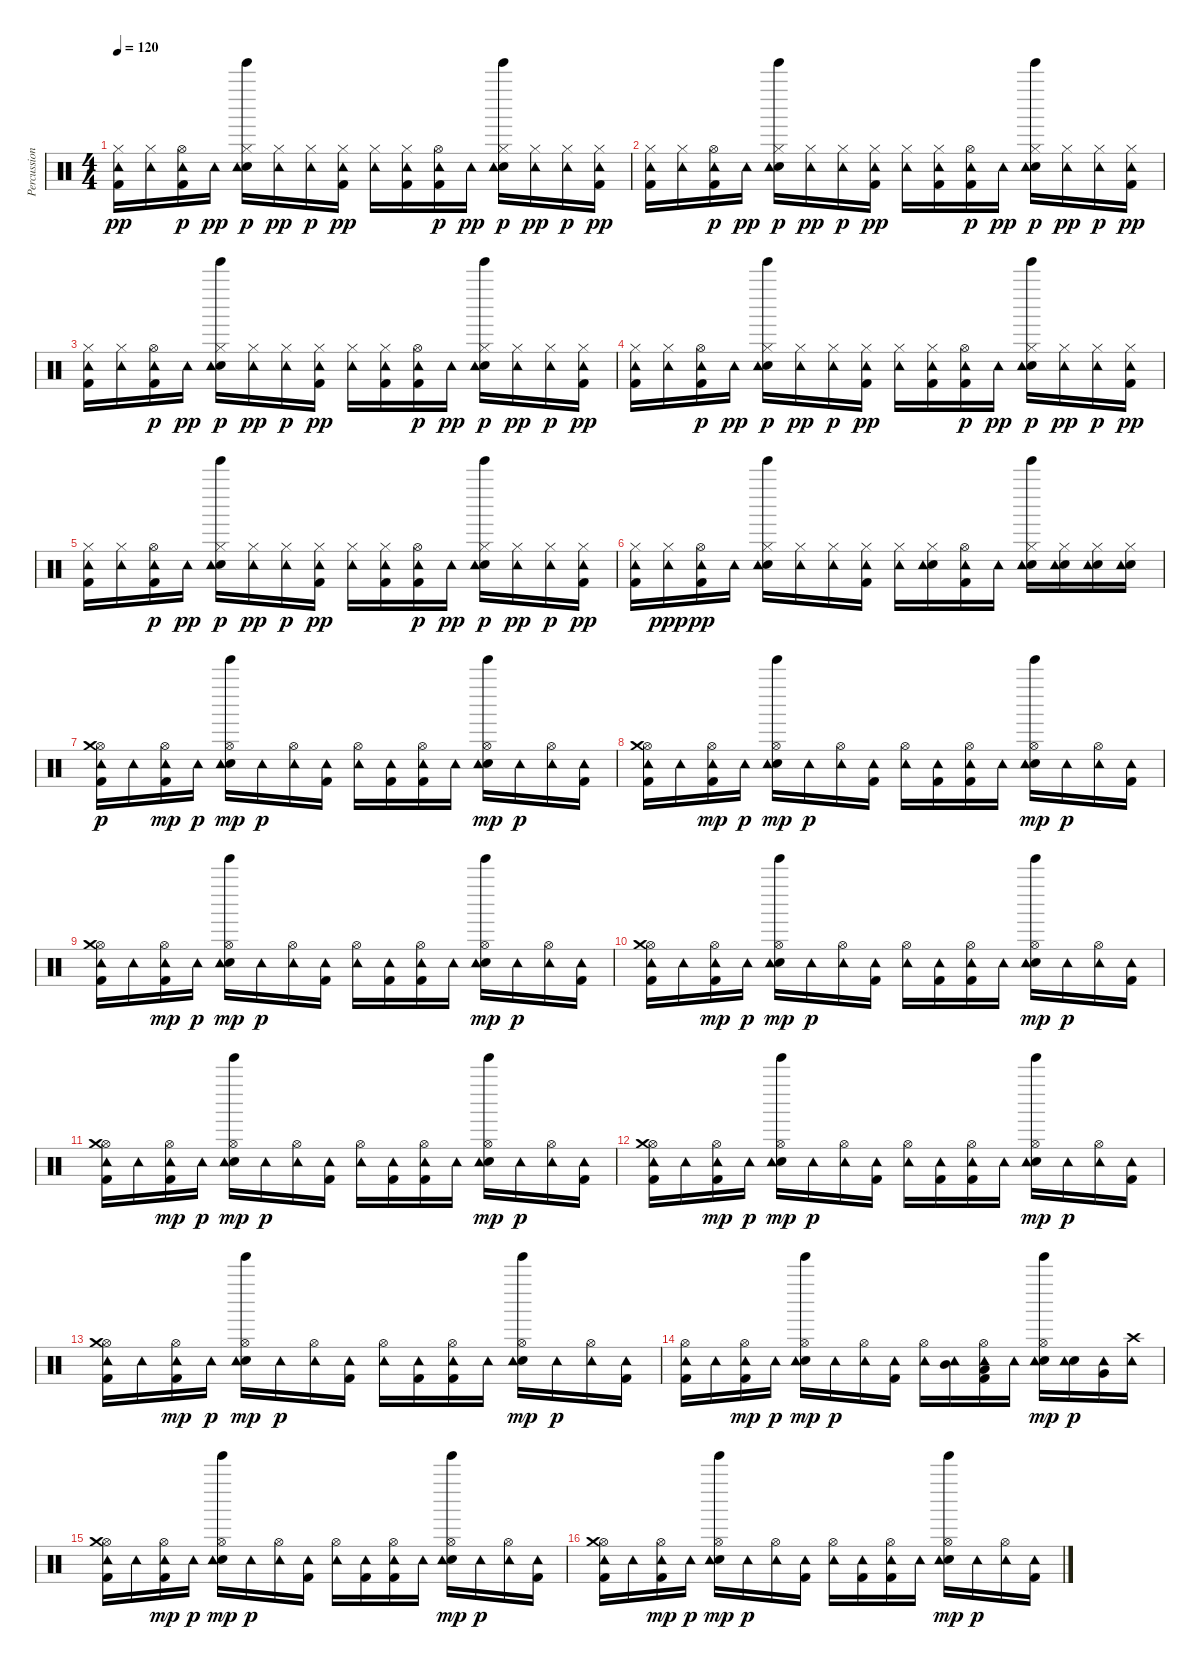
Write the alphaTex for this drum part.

\track ("Percussioni" "Percussion") {instrument percussion}
\staff {score}
\articulation defaults
\ts (4 4)
\tempo 120
\clef neutral
\ks c
("Kick (hit) 2" "Hi-Hat (closed)" "Tambourine (hit)").16{dy pp} ("Hi-Hat (closed)" "Tambourine (hit)").16 ("Kick (hit) 2" "Hi-Hat (open)" "Tambourine (hit)").16{dy p} "Tambourine (hit)".16{dy pp} ("Electric Snare (hit)" "Hi-Hat (closed)" "Tambourine (hit)" "Tinkle Bell (hit)").16{dy p} ("Hi-Hat (closed)" "Tambourine (hit)").16{dy pp} ("Hi-Hat (closed)" "Tambourine (hit)").16{dy p} ("Kick (hit) 2" "Hi-Hat (closed)" "Tambourine (hit)").16{dy pp} ("Hi-Hat (closed)" "Tambourine (hit)").16 ("Kick (hit) 2" "Hi-Hat (closed)" "Tambourine (hit)").16 ("Kick (hit) 2" "Hi-Hat (open)" "Tambourine (hit)").16{dy p} "Tambourine (hit)".16{dy pp} ("Electric Snare (hit)" "Hi-Hat (closed)" "Tambourine (hit)" "Tinkle Bell (hit)").16{dy p} ("Hi-Hat (closed)" "Tambourine (hit)").16{dy pp} ("Hi-Hat (closed)" "Tambourine (hit)").16{dy p} ("Kick (hit) 2" "Hi-Hat (closed)" "Tambourine (hit)").16{dy pp} |
("Kick (hit) 2" "Hi-Hat (closed)" "Tambourine (hit)").16 ("Hi-Hat (closed)" "Tambourine (hit)").16 ("Kick (hit) 2" "Hi-Hat (open)" "Tambourine (hit)").16{dy p} "Tambourine (hit)".16{dy pp} ("Electric Snare (hit)" "Hi-Hat (closed)" "Tambourine (hit)" "Tinkle Bell (hit)").16{dy p} ("Hi-Hat (closed)" "Tambourine (hit)").16{dy pp} ("Hi-Hat (closed)" "Tambourine (hit)").16{dy p} ("Kick (hit) 2" "Hi-Hat (closed)" "Tambourine (hit)").16{dy pp} ("Hi-Hat (closed)" "Tambourine (hit)").16 ("Kick (hit) 2" "Hi-Hat (closed)" "Tambourine (hit)").16 ("Kick (hit) 2" "Hi-Hat (open)" "Tambourine (hit)").16{dy p} "Tambourine (hit)".16{dy pp} ("Electric Snare (hit)" "Hi-Hat (closed)" "Tambourine (hit)" "Tinkle Bell (hit)").16{dy p} ("Hi-Hat (closed)" "Tambourine (hit)").16{dy pp} ("Hi-Hat (closed)" "Tambourine (hit)").16{dy p} ("Kick (hit) 2" "Hi-Hat (closed)" "Tambourine (hit)").16{dy pp} |
("Kick (hit) 2" "Hi-Hat (closed)" "Tambourine (hit)").16 ("Hi-Hat (closed)" "Tambourine (hit)").16 ("Kick (hit) 2" "Hi-Hat (open)" "Tambourine (hit)").16{dy p} "Tambourine (hit)".16{dy pp} ("Electric Snare (hit)" "Hi-Hat (closed)" "Tambourine (hit)" "Tinkle Bell (hit)").16{dy p} ("Hi-Hat (closed)" "Tambourine (hit)").16{dy pp} ("Hi-Hat (closed)" "Tambourine (hit)").16{dy p} ("Kick (hit) 2" "Hi-Hat (closed)" "Tambourine (hit)").16{dy pp} ("Hi-Hat (closed)" "Tambourine (hit)").16 ("Kick (hit) 2" "Hi-Hat (closed)" "Tambourine (hit)").16 ("Kick (hit) 2" "Hi-Hat (open)" "Tambourine (hit)").16{dy p} "Tambourine (hit)".16{dy pp} ("Electric Snare (hit)" "Hi-Hat (closed)" "Tambourine (hit)" "Tinkle Bell (hit)").16{dy p} ("Hi-Hat (closed)" "Tambourine (hit)").16{dy pp} ("Hi-Hat (closed)" "Tambourine (hit)").16{dy p} ("Kick (hit) 2" "Hi-Hat (closed)" "Tambourine (hit)").16{dy pp} |
("Kick (hit) 2" "Hi-Hat (closed)" "Tambourine (hit)").16 ("Hi-Hat (closed)" "Tambourine (hit)").16 ("Kick (hit) 2" "Hi-Hat (open)" "Tambourine (hit)").16{dy p} "Tambourine (hit)".16{dy pp} ("Electric Snare (hit)" "Hi-Hat (closed)" "Tambourine (hit)" "Tinkle Bell (hit)").16{dy p} ("Hi-Hat (closed)" "Tambourine (hit)").16{dy pp} ("Hi-Hat (closed)" "Tambourine (hit)").16{dy p} ("Kick (hit) 2" "Hi-Hat (closed)" "Tambourine (hit)").16{dy pp} ("Hi-Hat (closed)" "Tambourine (hit)").16 ("Kick (hit) 2" "Hi-Hat (closed)" "Tambourine (hit)").16 ("Kick (hit) 2" "Hi-Hat (open)" "Tambourine (hit)").16{dy p} "Tambourine (hit)".16{dy pp} ("Electric Snare (hit)" "Hi-Hat (closed)" "Tambourine (hit)" "Tinkle Bell (hit)").16{dy p} ("Hi-Hat (closed)" "Tambourine (hit)").16{dy pp} ("Hi-Hat (closed)" "Tambourine (hit)").16{dy p} ("Kick (hit) 2" "Hi-Hat (closed)" "Tambourine (hit)").16{dy pp} |
("Kick (hit) 2" "Hi-Hat (closed)" "Tambourine (hit)").16 ("Hi-Hat (closed)" "Tambourine (hit)").16 ("Kick (hit) 2" "Hi-Hat (open)" "Tambourine (hit)").16{dy p} "Tambourine (hit)".16{dy pp} ("Electric Snare (hit)" "Hi-Hat (closed)" "Tambourine (hit)" "Tinkle Bell (hit)").16{dy p} ("Hi-Hat (closed)" "Tambourine (hit)").16{dy pp} ("Hi-Hat (closed)" "Tambourine (hit)").16{dy p} ("Kick (hit) 2" "Hi-Hat (closed)" "Tambourine (hit)").16{dy pp} ("Hi-Hat (closed)" "Tambourine (hit)").16 ("Kick (hit) 2" "Hi-Hat (closed)" "Tambourine (hit)").16 ("Kick (hit) 2" "Hi-Hat (open)" "Tambourine (hit)").16{dy p} "Tambourine (hit)".16{dy pp} ("Electric Snare (hit)" "Hi-Hat (closed)" "Tambourine (hit)" "Tinkle Bell (hit)").16{dy p} ("Hi-Hat (closed)" "Tambourine (hit)").16{dy pp} ("Hi-Hat (closed)" "Tambourine (hit)").16{dy p} ("Kick (hit) 2" "Hi-Hat (closed)" "Tambourine (hit)").16{dy pp} |
("Kick (hit) 2" "Hi-Hat (closed)" "Tambourine (hit)").16 ("Hi-Hat (closed)" "Tambourine (hit)").16{dy ppp} ("Kick (hit) 2" "Hi-Hat (open)" "Tambourine (hit)").16{dy pp} "Tambourine (hit)".16 ("Electric Snare (hit)" "Hi-Hat (closed)" "Tambourine (hit)" "Tinkle Bell (hit)").16 ("Hi-Hat (closed)" "Tambourine (hit)").16 ("Hi-Hat (closed)" "Tambourine (hit)").16 ("Kick (hit) 2" "Hi-Hat (closed)" "Tambourine (hit)").16 ("Hi-Hat (closed)" "Tambourine (hit)").16 ("Electric Snare (hit)" "Hi-Hat (closed)" "Tambourine (hit)").16 ("Kick (hit) 2" "Hi-Hat (open)" "Tambourine (hit)").16 "Tambourine (hit)".16 ("Electric Snare (hit)" "Hi-Hat (closed)" "Tambourine (hit)" "Tinkle Bell (hit)").16 ("Electric Snare (hit)" "Hi-Hat (closed)" "Tambourine (hit)").16 ("Electric Snare (hit)" "Hi-Hat (closed)" "Tambourine (hit)").16 ("Electric Snare (hit)" "Hi-Hat (closed)" "Tambourine (hit)").16 |
("Kick (hit) 2" "Hi-Hat (open)" "Crash medium (hit)" "Tambourine (hit)").16{dy p} "Tambourine (hit)".16 ("Kick (hit) 2" "Hi-Hat (open)" "Tambourine (hit)").16{dy mp} "Tambourine (hit)".16{dy p} ("Electric Snare (hit)" "Hi-Hat (open)" "Tambourine (hit)" "Tinkle Bell (hit)").16{dy mp} "Tambourine (hit)".16{dy p} ("Hi-Hat (open)" "Tambourine (hit)").16 ("Kick (hit) 2" "Tambourine (hit)").16 ("Hi-Hat (open)" "Tambourine (hit)").16 ("Kick (hit) 2" "Tambourine (hit)").16 ("Kick (hit) 2" "Hi-Hat (open)" "Tambourine (hit)").16 "Tambourine (hit)".16 ("Electric Snare (hit)" "Hi-Hat (open)" "Tambourine (hit)" "Tinkle Bell (hit)").16{dy mp} "Tambourine (hit)".16{dy p} ("Hi-Hat (open)" "Tambourine (hit)").16 ("Kick (hit) 2" "Tambourine (hit)").16 |
("Kick (hit) 2" "Hi-Hat (open)" "Crash medium (hit)" "Tambourine (hit)").16 "Tambourine (hit)".16 ("Kick (hit) 2" "Hi-Hat (open)" "Tambourine (hit)").16{dy mp} "Tambourine (hit)".16{dy p} ("Electric Snare (hit)" "Hi-Hat (open)" "Tambourine (hit)" "Tinkle Bell (hit)").16{dy mp} "Tambourine (hit)".16{dy p} ("Hi-Hat (open)" "Tambourine (hit)").16 ("Kick (hit) 2" "Tambourine (hit)").16 ("Hi-Hat (open)" "Tambourine (hit)").16 ("Kick (hit) 2" "Tambourine (hit)").16 ("Kick (hit) 2" "Hi-Hat (open)" "Tambourine (hit)").16 "Tambourine (hit)".16 ("Electric Snare (hit)" "Hi-Hat (open)" "Tambourine (hit)" "Tinkle Bell (hit)").16{dy mp} "Tambourine (hit)".16{dy p} ("Hi-Hat (open)" "Tambourine (hit)").16 ("Kick (hit) 2" "Tambourine (hit)").16 |
("Kick (hit) 2" "Hi-Hat (open)" "Crash medium (hit)" "Tambourine (hit)").16 "Tambourine (hit)".16 ("Kick (hit) 2" "Hi-Hat (open)" "Tambourine (hit)").16{dy mp} "Tambourine (hit)".16{dy p} ("Electric Snare (hit)" "Hi-Hat (open)" "Tambourine (hit)" "Tinkle Bell (hit)").16{dy mp} "Tambourine (hit)".16{dy p} ("Hi-Hat (open)" "Tambourine (hit)").16 ("Kick (hit) 2" "Tambourine (hit)").16 ("Hi-Hat (open)" "Tambourine (hit)").16 ("Kick (hit) 2" "Tambourine (hit)").16 ("Kick (hit) 2" "Hi-Hat (open)" "Tambourine (hit)").16 "Tambourine (hit)".16 ("Electric Snare (hit)" "Hi-Hat (open)" "Tambourine (hit)" "Tinkle Bell (hit)").16{dy mp} "Tambourine (hit)".16{dy p} ("Hi-Hat (open)" "Tambourine (hit)").16 ("Kick (hit) 2" "Tambourine (hit)").16 |
("Kick (hit) 2" "Hi-Hat (open)" "Crash medium (hit)" "Tambourine (hit)").16 "Tambourine (hit)".16 ("Kick (hit) 2" "Hi-Hat (open)" "Tambourine (hit)").16{dy mp} "Tambourine (hit)".16{dy p} ("Electric Snare (hit)" "Hi-Hat (open)" "Tambourine (hit)" "Tinkle Bell (hit)").16{dy mp} "Tambourine (hit)".16{dy p} ("Hi-Hat (open)" "Tambourine (hit)").16 ("Kick (hit) 2" "Tambourine (hit)").16 ("Hi-Hat (open)" "Tambourine (hit)").16 ("Kick (hit) 2" "Tambourine (hit)").16 ("Kick (hit) 2" "Hi-Hat (open)" "Tambourine (hit)").16 "Tambourine (hit)".16 ("Electric Snare (hit)" "Hi-Hat (open)" "Tambourine (hit)" "Tinkle Bell (hit)").16{dy mp} "Tambourine (hit)".16{dy p} ("Hi-Hat (open)" "Tambourine (hit)").16 ("Kick (hit) 2" "Tambourine (hit)").16 |
("Kick (hit) 2" "Hi-Hat (open)" "Crash medium (hit)" "Tambourine (hit)").16 "Tambourine (hit)".16 ("Kick (hit) 2" "Hi-Hat (open)" "Tambourine (hit)").16{dy mp} "Tambourine (hit)".16{dy p} ("Electric Snare (hit)" "Hi-Hat (open)" "Tambourine (hit)" "Tinkle Bell (hit)").16{dy mp} "Tambourine (hit)".16{dy p} ("Hi-Hat (open)" "Tambourine (hit)").16 ("Kick (hit) 2" "Tambourine (hit)").16 ("Hi-Hat (open)" "Tambourine (hit)").16 ("Kick (hit) 2" "Tambourine (hit)").16 ("Kick (hit) 2" "Hi-Hat (open)" "Tambourine (hit)").16 "Tambourine (hit)".16 ("Electric Snare (hit)" "Hi-Hat (open)" "Tambourine (hit)" "Tinkle Bell (hit)").16{dy mp} "Tambourine (hit)".16{dy p} ("Hi-Hat (open)" "Tambourine (hit)").16 ("Kick (hit) 2" "Tambourine (hit)").16 |
("Kick (hit) 2" "Hi-Hat (open)" "Crash medium (hit)" "Tambourine (hit)").16 "Tambourine (hit)".16 ("Kick (hit) 2" "Hi-Hat (open)" "Tambourine (hit)").16{dy mp} "Tambourine (hit)".16{dy p} ("Electric Snare (hit)" "Hi-Hat (open)" "Tambourine (hit)" "Tinkle Bell (hit)").16{dy mp} "Tambourine (hit)".16{dy p} ("Hi-Hat (open)" "Tambourine (hit)").16 ("Kick (hit) 2" "Tambourine (hit)").16 ("Hi-Hat (open)" "Tambourine (hit)").16 ("Kick (hit) 2" "Tambourine (hit)").16 ("Kick (hit) 2" "Hi-Hat (open)" "Tambourine (hit)").16 "Tambourine (hit)".16 ("Electric Snare (hit)" "Hi-Hat (open)" "Tambourine (hit)" "Tinkle Bell (hit)").16{dy mp} "Tambourine (hit)".16{dy p} ("Hi-Hat (open)" "Tambourine (hit)").16 ("Kick (hit) 2" "Tambourine (hit)").16 |
("Kick (hit) 2" "Hi-Hat (open)" "Crash medium (hit)" "Tambourine (hit)").16 "Tambourine (hit)".16 ("Kick (hit) 2" "Hi-Hat (open)" "Tambourine (hit)").16{dy mp} "Tambourine (hit)".16{dy p} ("Electric Snare (hit)" "Hi-Hat (open)" "Tambourine (hit)" "Tinkle Bell (hit)").16{dy mp} "Tambourine (hit)".16{dy p} ("Hi-Hat (open)" "Tambourine (hit)").16 ("Kick (hit) 2" "Tambourine (hit)").16 ("Hi-Hat (open)" "Tambourine (hit)").16 ("Kick (hit) 2" "Tambourine (hit)").16 ("Kick (hit) 2" "Hi-Hat (open)" "Tambourine (hit)").16 "Tambourine (hit)".16 ("Electric Snare (hit)" "Hi-Hat (open)" "Tambourine (hit)" "Tinkle Bell (hit)").16{dy mp} "Tambourine (hit)".16{dy p} ("Hi-Hat (open)" "Tambourine (hit)").16 ("Kick (hit) 2" "Tambourine (hit)").16 |
("Kick (hit) 2" "Hi-Hat (open)" "Tambourine (hit)").16 "Tambourine (hit)".16 ("Kick (hit) 2" "Hi-Hat (open)" "Tambourine (hit)").16{dy mp} "Tambourine (hit)".16{dy p} ("Electric Snare (hit)" "Hi-Hat (open)" "Tambourine (hit)" "Tinkle Bell (hit)").16{dy mp} "Tambourine (hit)".16{dy p} ("Hi-Hat (open)" "Tambourine (hit)").16 ("Kick (hit) 2" "Tambourine (hit)").16 ("Hi-Hat (open)" "Tambourine (hit)").16 ("Mid Tom (hit)" "Tambourine (hit)").16 ("Kick (hit) 2" "Low Tom (hit)" "Hi-Hat (open)" "Tambourine (hit)").16 "Tambourine (hit)".16 ("Electric Snare (hit)" "Hi-Hat (open)" "Tambourine (hit)" "Tinkle Bell (hit)").16{dy mp} ("Electric Snare (hit)" "Tambourine (hit)").16{dy p} ("Very Low Tom (hit)" "Tambourine (hit)").16 ("Crash high (hit)" "Tambourine (hit)").16 |
("Kick (hit) 2" "Hi-Hat (open)" "Crash medium (hit)" "Tambourine (hit)").16 "Tambourine (hit)".16 ("Kick (hit) 2" "Hi-Hat (open)" "Tambourine (hit)").16{dy mp} "Tambourine (hit)".16{dy p} ("Electric Snare (hit)" "Hi-Hat (open)" "Tambourine (hit)" "Tinkle Bell (hit)").16{dy mp} "Tambourine (hit)".16{dy p} ("Hi-Hat (open)" "Tambourine (hit)").16 ("Kick (hit) 2" "Tambourine (hit)").16 ("Hi-Hat (open)" "Tambourine (hit)").16 ("Kick (hit) 2" "Tambourine (hit)").16 ("Kick (hit) 2" "Hi-Hat (open)" "Tambourine (hit)").16 "Tambourine (hit)".16 ("Electric Snare (hit)" "Hi-Hat (open)" "Tambourine (hit)" "Tinkle Bell (hit)").16{dy mp} "Tambourine (hit)".16{dy p} ("Hi-Hat (open)" "Tambourine (hit)").16 ("Kick (hit) 2" "Tambourine (hit)").16 |
("Kick (hit) 2" "Hi-Hat (open)" "Crash medium (hit)" "Tambourine (hit)").16 "Tambourine (hit)".16 ("Kick (hit) 2" "Hi-Hat (open)" "Tambourine (hit)").16{dy mp} "Tambourine (hit)".16{dy p} ("Electric Snare (hit)" "Hi-Hat (open)" "Tambourine (hit)" "Tinkle Bell (hit)").16{dy mp} "Tambourine (hit)".16{dy p} ("Hi-Hat (open)" "Tambourine (hit)").16 ("Kick (hit) 2" "Tambourine (hit)").16 ("Hi-Hat (open)" "Tambourine (hit)").16 ("Kick (hit) 2" "Tambourine (hit)").16 ("Kick (hit) 2" "Hi-Hat (open)" "Tambourine (hit)").16 "Tambourine (hit)".16 ("Electric Snare (hit)" "Hi-Hat (open)" "Tambourine (hit)" "Tinkle Bell (hit)").16{dy mp} "Tambourine (hit)".16{dy p} ("Hi-Hat (open)" "Tambourine (hit)").16 ("Kick (hit) 2" "Tambourine (hit)").16
